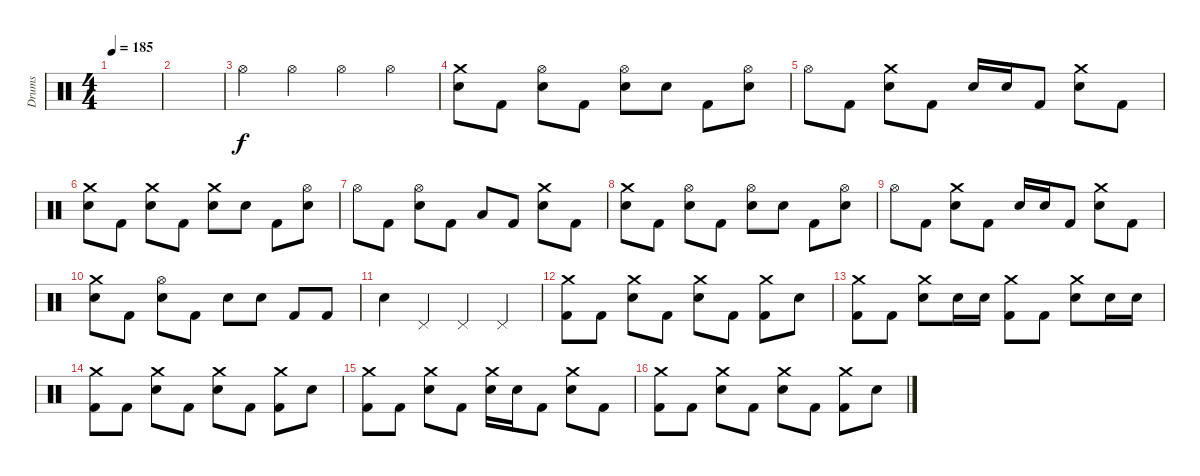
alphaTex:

\track ("Drums" "Drums") {instrument percussion}
\staff {score}
\articulation defaults
\ts (4 4)
\tempo 185
\clef neutral
\ks c
|
|
"Hi-Hat (open)".4 "Hi-Hat (open)".4 "Hi-Hat (open)".4 "Hi-Hat (open)".4 |
("Crash medium (hit)" "Electric Snare (hit)").8 "Kick (hit) 2".8 ("Hi-Hat (open)" "Electric Snare (hit)").8 "Kick (hit) 2".8 ("Hi-Hat (open)" "Electric Snare (hit)").8 "Electric Snare (hit)".8 "Kick (hit) 2".8 ("Hi-Hat (open)" "Electric Snare (hit)").8 |
"Hi-Hat (open)".8 "Kick (hit) 2".8 ("Crash medium (hit)" "Electric Snare (hit)").8 "Kick (hit) 2".8 "Electric Snare (hit)".16 "Electric Snare (hit)".16 "Kick (hit) 2".8 ("Crash medium (hit)" "Electric Snare (hit)").8 "Kick (hit) 2".8 |
("Crash medium (hit)" "Electric Snare (hit)").8 "Kick (hit) 2".8 ("Crash medium (hit)" "Electric Snare (hit)").8 "Kick (hit) 2".8 ("Crash medium (hit)" "Electric Snare (hit)").8 "Electric Snare (hit)".8 "Kick (hit) 2".8 ("Hi-Hat (open)" "Electric Snare (hit)").8 |
"Hi-Hat (open)".8 "Kick (hit) 2".8 ("Hi-Hat (open)" "Electric Snare (hit)").8 "Kick (hit) 2".8 "Low Tom (hit)".8 "Kick (hit) 2".8 ("Crash medium (hit)" "Electric Snare (hit)").8 "Kick (hit) 2".8 |
("Crash medium (hit)" "Electric Snare (hit)").8 "Kick (hit) 2".8 ("Hi-Hat (open)" "Electric Snare (hit)").8 "Kick (hit) 2".8 ("Hi-Hat (open)" "Electric Snare (hit)").8 "Electric Snare (hit)".8 "Kick (hit) 2".8 ("Hi-Hat (open)" "Electric Snare (hit)").8 |
"Hi-Hat (open)".8 "Kick (hit) 2".8 ("Crash medium (hit)" "Electric Snare (hit)").8 "Kick (hit) 2".8 "Electric Snare (hit)".16 "Electric Snare (hit)".16 "Kick (hit) 2".8 ("Crash medium (hit)" "Electric Snare (hit)").8 "Kick (hit) 2".8 |
("Crash medium (hit)" "Electric Snare (hit)").8 "Kick (hit) 2".8 ("Hi-Hat (open)" "Electric Snare (hit)").8 "Kick (hit) 2".8 "Electric Snare (hit)".8 "Electric Snare (hit)".8 "Kick (hit) 2".8 "Kick (hit) 2".8 |
"Electric Snare (hit)".4 "Pedal Hi-Hat (hit)".4 "Pedal Hi-Hat (hit)".4 "Pedal Hi-Hat (hit)".4 |
("Crash medium (hit)" "Kick (hit) 2").8 "Kick (hit) 2".8 ("Crash medium (hit)" "Electric Snare (hit)").8 "Kick (hit) 2".8 ("Crash medium (hit)" "Electric Snare (hit)").8 "Kick (hit) 2".8 ("Crash medium (hit)" "Kick (hit) 2").8 "Electric Snare (hit)".8 |
("Crash medium (hit)" "Kick (hit) 2").8 "Kick (hit) 2".8 ("Crash medium (hit)" "Electric Snare (hit)").8 "Electric Snare (hit)".16 "Electric Snare (hit)".16 ("Crash medium (hit)" "Kick (hit) 2").8 "Kick (hit) 2".8 ("Crash medium (hit)" "Electric Snare (hit)").8 "Electric Snare (hit)".16 "Electric Snare (hit)".16 |
("Crash medium (hit)" "Kick (hit) 2").8 "Kick (hit) 2".8 ("Crash medium (hit)" "Electric Snare (hit)").8 "Kick (hit) 2".8 ("Crash medium (hit)" "Electric Snare (hit)").8 "Kick (hit) 2".8 ("Crash medium (hit)" "Kick (hit) 2").8 "Electric Snare (hit)".8 |
("Crash medium (hit)" "Kick (hit) 2").8 "Kick (hit) 2".8 ("Crash medium (hit)" "Electric Snare (hit)").8 "Kick (hit) 2".8 ("Crash medium (hit)" "Electric Snare (hit)").16 "Electric Snare (hit)".16 "Kick (hit) 2".8 ("Crash medium (hit)" "Electric Snare (hit)").8 "Kick (hit) 2".8 |
("Crash medium (hit)" "Kick (hit) 2").8 "Kick (hit) 2".8 ("Crash medium (hit)" "Electric Snare (hit)").8 "Kick (hit) 2".8 ("Crash medium (hit)" "Electric Snare (hit)").8 "Kick (hit) 2".8 ("Crash medium (hit)" "Kick (hit) 2").8 "Electric Snare (hit)".8
